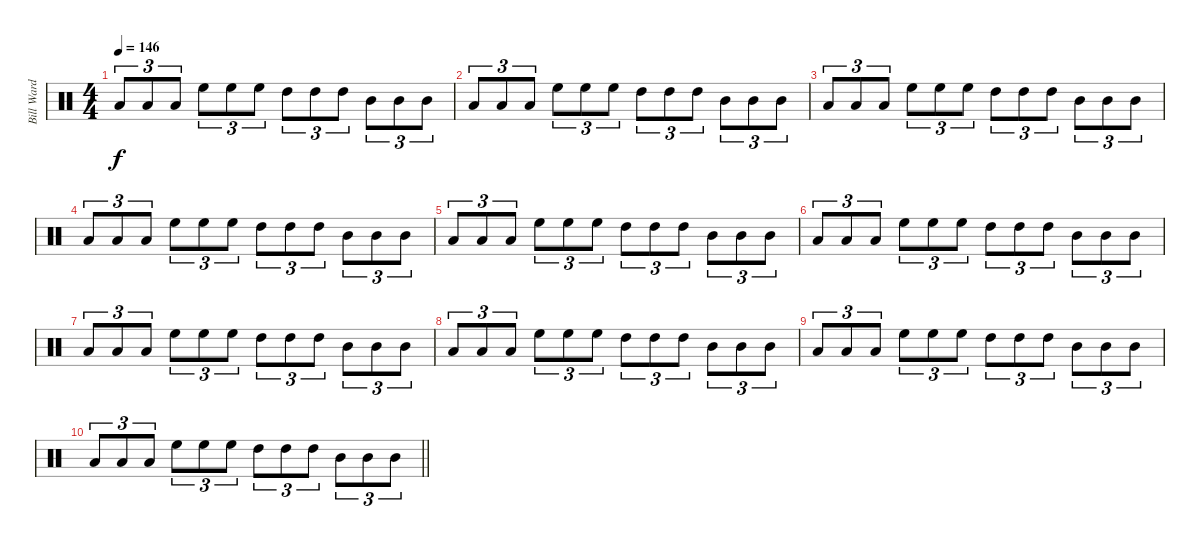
\track ("Bill Ward - Drum Fills" "Bill Ward ") {instrument percussion}
\staff {score}
\articulation defaults
\ts (4 4)
\tempo 146
\clef neutral
\ks c "Low Tom (hit)".8{tu (3 2) dy f} "Low Tom (hit)".8{tu (3 2)} "Low Tom (hit)".8{tu (3 2)} "High Floor Tom (hit)".8{tu (3 2)} "High Floor Tom (hit)".8{tu (3 2)} "High Floor Tom (hit)".8{tu (3 2)} "High Tom (hit)".8{tu (3 2)} "High Tom (hit)".8{tu (3 2)} "High Tom (hit)".8{tu (3 2)} "Mid Tom (hit)".8{tu (3 2)} "Mid Tom (hit)".8{tu (3 2)} "Mid Tom (hit)".8{tu (3 2)}
|
"Low Tom (hit)".8{tu (3 2)} "Low Tom (hit)".8{tu (3 2)} "Low Tom (hit)".8{tu (3 2)} "High Floor Tom (hit)".8{tu (3 2)} "High Floor Tom (hit)".8{tu (3 2)} "High Floor Tom (hit)".8{tu (3 2)} "High Tom (hit)".8{tu (3 2)} "High Tom (hit)".8{tu (3 2)} "High Tom (hit)".8{tu (3 2)} "Mid Tom (hit)".8{tu (3 2)} "Mid Tom (hit)".8{tu (3 2)} "Mid Tom (hit)".8{tu (3 2)} |
"Low Tom (hit)".8{tu (3 2)} "Low Tom (hit)".8{tu (3 2)} "Low Tom (hit)".8{tu (3 2)} "High Floor Tom (hit)".8{tu (3 2)} "High Floor Tom (hit)".8{tu (3 2)} "High Floor Tom (hit)".8{tu (3 2)} "High Tom (hit)".8{tu (3 2)} "High Tom (hit)".8{tu (3 2)} "High Tom (hit)".8{tu (3 2)} "Mid Tom (hit)".8{tu (3 2)} "Mid Tom (hit)".8{tu (3 2)} "Mid Tom (hit)".8{tu (3 2)} |
"Low Tom (hit)".8{tu (3 2)} "Low Tom (hit)".8{tu (3 2)} "Low Tom (hit)".8{tu (3 2)} "High Floor Tom (hit)".8{tu (3 2)} "High Floor Tom (hit)".8{tu (3 2)} "High Floor Tom (hit)".8{tu (3 2)} "High Tom (hit)".8{tu (3 2)} "High Tom (hit)".8{tu (3 2)} "High Tom (hit)".8{tu (3 2)} "Mid Tom (hit)".8{tu (3 2)} "Mid Tom (hit)".8{tu (3 2)} "Mid Tom (hit)".8{tu (3 2)} |
"Low Tom (hit)".8{tu (3 2)} "Low Tom (hit)".8{tu (3 2)} "Low Tom (hit)".8{tu (3 2)} "High Floor Tom (hit)".8{tu (3 2)} "High Floor Tom (hit)".8{tu (3 2)} "High Floor Tom (hit)".8{tu (3 2)} "High Tom (hit)".8{tu (3 2)} "High Tom (hit)".8{tu (3 2)} "High Tom (hit)".8{tu (3 2)} "Mid Tom (hit)".8{tu (3 2)} "Mid Tom (hit)".8{tu (3 2)} "Mid Tom (hit)".8{tu (3 2)} |
"Low Tom (hit)".8{tu (3 2)} "Low Tom (hit)".8{tu (3 2)} "Low Tom (hit)".8{tu (3 2)} "High Floor Tom (hit)".8{tu (3 2)} "High Floor Tom (hit)".8{tu (3 2)} "High Floor Tom (hit)".8{tu (3 2)} "High Tom (hit)".8{tu (3 2)} "High Tom (hit)".8{tu (3 2)} "High Tom (hit)".8{tu (3 2)} "Mid Tom (hit)".8{tu (3 2)} "Mid Tom (hit)".8{tu (3 2)} "Mid Tom (hit)".8{tu (3 2)} |
"Low Tom (hit)".8{tu (3 2)} "Low Tom (hit)".8{tu (3 2)} "Low Tom (hit)".8{tu (3 2)} "High Floor Tom (hit)".8{tu (3 2)} "High Floor Tom (hit)".8{tu (3 2)} "High Floor Tom (hit)".8{tu (3 2)} "High Tom (hit)".8{tu (3 2)} "High Tom (hit)".8{tu (3 2)} "High Tom (hit)".8{tu (3 2)} "Mid Tom (hit)".8{tu (3 2)} "Mid Tom (hit)".8{tu (3 2)} "Mid Tom (hit)".8{tu (3 2)} |
"Low Tom (hit)".8{tu (3 2)} "Low Tom (hit)".8{tu (3 2)} "Low Tom (hit)".8{tu (3 2)} "High Floor Tom (hit)".8{tu (3 2)} "High Floor Tom (hit)".8{tu (3 2)} "High Floor Tom (hit)".8{tu (3 2)} "High Tom (hit)".8{tu (3 2)} "High Tom (hit)".8{tu (3 2)} "High Tom (hit)".8{tu (3 2)} "Mid Tom (hit)".8{tu (3 2)} "Mid Tom (hit)".8{tu (3 2)} "Mid Tom (hit)".8{tu (3 2)} |
"Low Tom (hit)".8{tu (3 2)} "Low Tom (hit)".8{tu (3 2)} "Low Tom (hit)".8{tu (3 2)} "High Floor Tom (hit)".8{tu (3 2)} "High Floor Tom (hit)".8{tu (3 2)} "High Floor Tom (hit)".8{tu (3 2)} "High Tom (hit)".8{tu (3 2)} "High Tom (hit)".8{tu (3 2)} "High Tom (hit)".8{tu (3 2)} "Mid Tom (hit)".8{tu (3 2)} "Mid Tom (hit)".8{tu (3 2)} "Mid Tom (hit)".8{tu (3 2)} |
\barLineRight lightlight "Low Tom (hit)".8{tu (3 2)} "Low Tom (hit)".8{tu (3 2)} "Low Tom (hit)".8{tu (3 2)} "High Floor Tom (hit)".8{tu (3 2)} "High Floor Tom (hit)".8{tu (3 2)} "High Floor Tom (hit)".8{tu (3 2)} "High Tom (hit)".8{tu (3 2)} "High Tom (hit)".8{tu (3 2)} "High Tom (hit)".8{tu (3 2)} "Mid Tom (hit)".8{tu (3 2)} "Mid Tom (hit)".8{tu (3 2)} "Mid Tom (hit)".8{tu (3 2)}
